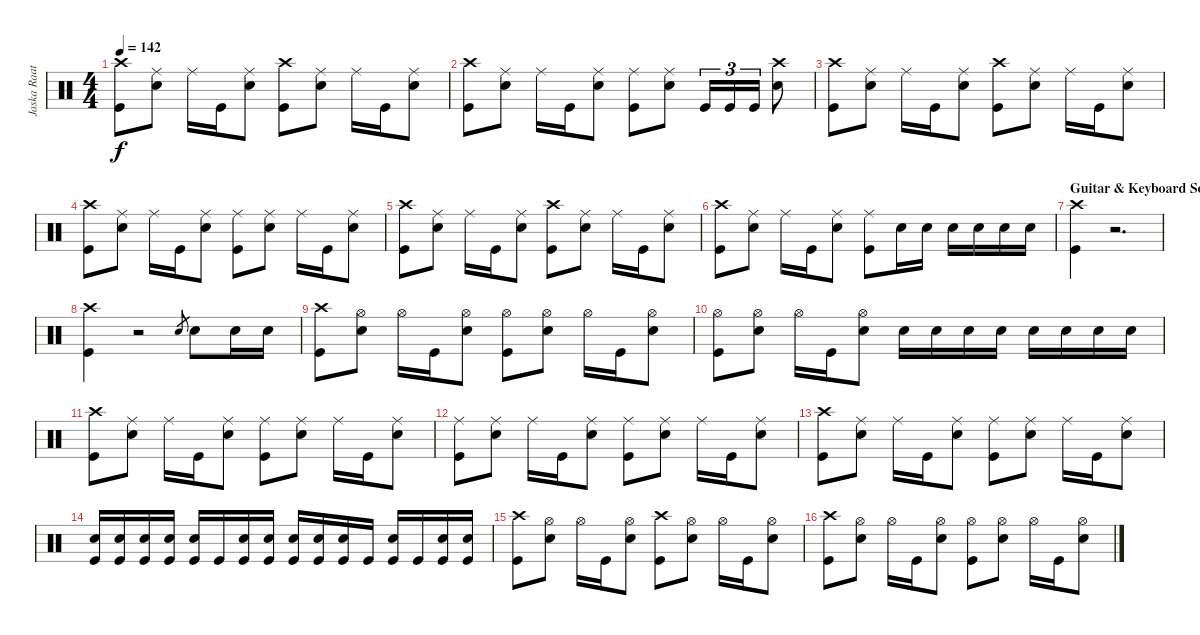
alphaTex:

\track ("Jaska Raatikainen" "Jaska Raat") {instrument percussion}
\staff {score}
\articulation defaults
\ts (4 4)
\tempo 142
\clef neutral
\ks c
("Crash high (hit)" "Kick (hit)").8{dy f} ("Ride (middle)" "Snare (hit) 2").8 "Ride (middle)".16 "Kick (hit)".16 ("Ride (middle)" "Snare (hit) 2").8 ("Crash high (hit)" "Kick (hit)").8 ("Ride (middle)" "Snare (hit) 2").8 "Ride (middle)".16 "Kick (hit)".16 ("Ride (middle)" "Snare (hit) 2").8 |
("Crash high (hit)" "Kick (hit)").8 ("Ride (middle)" "Snare (hit) 2").8 "Ride (middle)".16 "Kick (hit)".16 ("Ride (middle)" "Snare (hit) 2").8 ("Ride (middle)" "Kick (hit)").8 ("Ride (middle)" "Snare (hit) 2").8 "Kick (hit)".16{tu (3 2)} "Kick (hit)".16{tu (3 2)} "Kick (hit)".16{tu (3 2)} ("Crash high (hit)" "Snare (hit) 2").8 |
("Crash high (hit)" "Kick (hit)").8 ("Ride (middle)" "Snare (hit) 2").8 "Ride (middle)".16 "Kick (hit)".16 ("Ride (middle)" "Snare (hit) 2").8 ("Crash high (hit)" "Kick (hit)").8 ("Ride (middle)" "Snare (hit) 2").8 "Ride (middle)".16 "Kick (hit)".16 ("Ride (middle)" "Snare (hit) 2").8 |
("Crash high (hit)" "Kick (hit)").8 ("Ride (middle)" "Snare (hit) 2").8 "Ride (middle)".16 "Kick (hit)".16 ("Ride (middle)" "Snare (hit) 2").8 ("Ride (middle)" "Kick (hit)").8 ("Ride (middle)" "Snare (hit) 2").8 "Ride (middle)".16 "Kick (hit)".16 ("Ride (middle)" "Snare (hit) 2").8 |
("Crash high (hit)" "Kick (hit)").8 ("Ride (middle)" "Snare (hit) 2").8 "Ride (middle)".16 "Kick (hit)".16 ("Ride (middle)" "Snare (hit) 2").8 ("Crash high (hit)" "Kick (hit)").8 ("Ride (middle)" "Snare (hit) 2").8 "Ride (middle)".16 "Kick (hit)".16 ("Ride (middle)" "Snare (hit) 2").8 |
("Crash high (hit)" "Kick (hit)").8 ("Ride (middle)" "Snare (hit) 2").8 "Ride (middle)".16 "Kick (hit)".16 ("Ride (middle)" "Snare (hit) 2").8 ("Ride (middle)" "Kick (hit)").8 "Snare (hit) 2".16 "Snare (hit) 2".16 "Snare (hit) 2".16 "Snare (hit) 2".16 "Snare (hit) 2".16 "Snare (hit) 2".16 |
\section ("" "Guitar & Keyboard Solo III")
("Crash high (hit)" "Kick (hit)").4 r.2{d} |
("Crash high (hit)" "Kick (hit)").4 r.2 "Snare (hit) 2".8{gr} "Snare (hit) 2".8 "Snare (hit) 2".16 "Snare (hit) 2".16 |
("Crash high (hit)" "Kick (hit)").8 ("Hi-Hat (open)" "Snare (hit) 2").8 "Hi-Hat (open)".16 "Kick (hit)".16 ("Hi-Hat (open)" "Snare (hit) 2").8 ("Hi-Hat (open)" "Kick (hit)").8 ("Hi-Hat (open)" "Snare (hit) 2").8 "Hi-Hat (open)".16 "Kick (hit)".16 ("Hi-Hat (open)" "Snare (hit) 2").8 |
("Hi-Hat (open)" "Kick (hit)").8 ("Hi-Hat (open)" "Snare (hit) 2").8 "Hi-Hat (open)".16 "Kick (hit)".16 ("Hi-Hat (open)" "Snare (hit) 2").8 "Snare (hit) 2".16 "Snare (hit) 2".16 "Snare (hit) 2".16 "Snare (hit) 2".16 "Snare (hit) 2".16 "Snare (hit) 2".16 "Snare (hit) 2".16 "Snare (hit) 2".16 |
("Crash high (hit)" "Kick (hit)").8 ("Ride (middle)" "Snare (hit) 2").8 "Ride (middle)".16 "Kick (hit)".16 ("Ride (middle)" "Snare (hit) 2").8 ("Ride (middle)" "Kick (hit)").8 ("Ride (middle)" "Snare (hit) 2").8 "Ride (middle)".16 "Kick (hit)".16 ("Ride (middle)" "Snare (hit) 2").8 |
("Ride (middle)" "Kick (hit)").8 ("Ride (middle)" "Snare (hit) 2").8 "Ride (middle)".16 "Kick (hit)".16 ("Ride (middle)" "Snare (hit) 2").8 ("Ride (middle)" "Kick (hit)").8 ("Ride (middle)" "Snare (hit) 2").8 "Ride (middle)".16 "Kick (hit)".16 ("Ride (middle)" "Snare (hit) 2").8 |
("Crash high (hit)" "Kick (hit)").8 ("Ride (middle)" "Snare (hit) 2").8 "Ride (middle)".16 "Kick (hit)".16 ("Ride (middle)" "Snare (hit) 2").8 ("Ride (middle)" "Kick (hit)").8 ("Ride (middle)" "Snare (hit) 2").8 "Ride (middle)".16 "Kick (hit)".16 ("Ride (middle)" "Snare (hit) 2").8 |
("Snare (hit) 2" "Kick (hit)").16 ("Snare (hit) 2" "Kick (hit)").16 ("Snare (hit) 2" "Kick (hit)").16 ("Snare (hit) 2" "Kick (hit)").16 ("Snare (hit) 2" "Kick (hit)").16 "Kick (hit)".16 ("Snare (hit) 2" "Kick (hit)").16 ("Snare (hit) 2" "Kick (hit)").16 ("Snare (hit) 2" "Kick (hit)").16 ("Snare (hit) 2" "Kick (hit)").16 ("Snare (hit) 2" "Kick (hit)").16 "Kick (hit)".16 ("Snare (hit) 2" "Kick (hit)").16 "Kick (hit)".16 ("Snare (hit) 2" "Kick (hit)").16 ("Snare (hit) 2" "Kick (hit)").16 |
("Crash high (hit)" "Kick (hit)").8 ("Hi-Hat (open)" "Snare (hit) 2").8 "Hi-Hat (open)".16 "Kick (hit)".16 ("Hi-Hat (open)" "Snare (hit) 2").8 ("Crash high (hit)" "Kick (hit)").8 ("Hi-Hat (open)" "Snare (hit) 2").8 "Hi-Hat (open)".16 "Kick (hit)".16 ("Hi-Hat (open)" "Snare (hit) 2").8 |
("Crash high (hit)" "Kick (hit)").8 ("Hi-Hat (open)" "Snare (hit) 2").8 "Hi-Hat (open)".16 "Kick (hit)".16 ("Hi-Hat (open)" "Snare (hit) 2").8 ("Hi-Hat (open)" "Kick (hit)").8 ("Hi-Hat (open)" "Snare (hit) 2").8 "Hi-Hat (open)".16 "Kick (hit)".16 ("Hi-Hat (open)" "Snare (hit) 2").8
